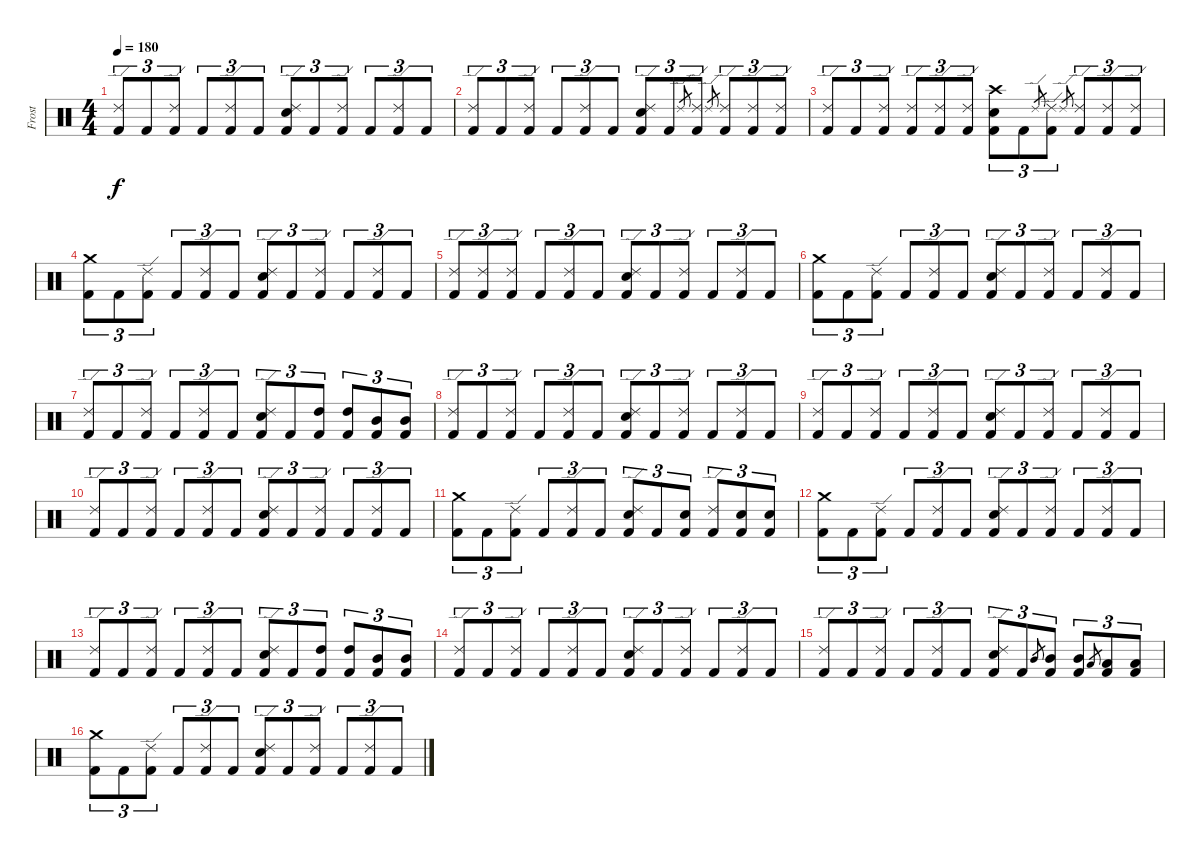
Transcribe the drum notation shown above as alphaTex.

\track ("Frost" "Frost") {instrument percussion}
\staff {score}
\articulation defaults
\ts (4 4)
\tempo 180
\clef neutral
\ks c
("Ride (edge) 2" "Kick (hit) 2").8{tu (3 2) dy f} "Kick (hit) 2".8{tu (3 2)} ("Ride (edge) 2" "Kick (hit) 2").8{tu (3 2)} "Kick (hit) 2".8{tu (3 2)} ("Ride (edge) 2" "Kick (hit) 2").8{tu (3 2)} "Kick (hit) 2".8{tu (3 2)} ("Ride (edge) 2" "Electric Snare (hit)" "Kick (hit) 2").8{tu (3 2)} "Kick (hit) 2".8{tu (3 2)} ("Ride (edge) 2" "Kick (hit) 2").8{tu (3 2)} "Kick (hit) 2".8{tu (3 2)} ("Ride (edge) 2" "Kick (hit) 2").8{tu (3 2)} "Kick (hit) 2".8{tu (3 2)} |
("Ride (edge) 2" "Kick (hit) 2").8{tu (3 2)} "Kick (hit) 2".8{tu (3 2)} ("Ride (edge) 2" "Kick (hit) 2").8{tu (3 2)} "Kick (hit) 2".8{tu (3 2)} ("Ride (edge) 2" "Kick (hit) 2").8{tu (3 2)} "Kick (hit) 2".8{tu (3 2)} ("Ride (edge) 2" "Electric Snare (hit)" "Kick (hit) 2").8{tu (3 2)} "Kick (hit) 2".8{tu (3 2)} "Ride (edge) 2".8{gr} ("Ride (edge) 2" "Kick (hit) 2").8{tu (3 2)} "Ride (edge) 2".8{gr} ("Ride (edge) 2" "Kick (hit) 2").8{tu (3 2)} ("Ride (edge) 2" "Kick (hit) 2").8{tu (3 2)} ("Ride (edge) 2" "Kick (hit) 2").8{tu (3 2)} |
("Ride (edge) 2" "Kick (hit) 2").8{tu (3 2)} "Kick (hit) 2".8{tu (3 2)} ("Ride (edge) 2" "Kick (hit) 2").8{tu (3 2)} ("Ride (edge) 2" "Kick (hit) 2").8{tu (3 2)} ("Ride (edge) 2" "Kick (hit) 2").8{tu (3 2)} ("Ride (edge) 2" "Kick (hit) 2").8{tu (3 2)} ("Crash high (hit)" "Electric Snare (hit)" "Kick (hit) 2").8{tu (3 2)} "Kick (hit) 2".8{tu (3 2)} "Ride (edge) 2".8{gr} ("Ride (edge) 2" "Kick (hit) 2").8{tu (3 2)} "Ride (edge) 2".8{gr} ("Ride (edge) 2" "Kick (hit) 2").8{tu (3 2)} ("Ride (edge) 2" "Kick (hit) 2").8{tu (3 2)} ("Ride (edge) 2" "Kick (hit) 2").8{tu (3 2)} |
("Crash medium (hit)" "Kick (hit) 2").8{tu (3 2)} "Kick (hit) 2".8{tu (3 2)} ("Ride (edge) 2" "Kick (hit) 2").8{tu (3 2)} "Kick (hit) 2".8{tu (3 2)} ("Ride (edge) 2" "Kick (hit) 2").8{tu (3 2)} "Kick (hit) 2".8{tu (3 2)} ("Ride (edge) 2" "Electric Snare (hit)" "Kick (hit) 2").8{tu (3 2)} "Kick (hit) 2".8{tu (3 2)} ("Ride (edge) 2" "Kick (hit) 2").8{tu (3 2)} "Kick (hit) 2".8{tu (3 2)} ("Ride (edge) 2" "Kick (hit) 2").8{tu (3 2)} "Kick (hit) 2".8{tu (3 2)} |
("Ride (edge) 2" "Kick (hit) 2").8{tu (3 2)} ("Ride (edge) 2" "Kick (hit) 2").8{tu (3 2)} ("Ride (edge) 2" "Kick (hit) 2").8{tu (3 2)} "Kick (hit) 2".8{tu (3 2)} ("Ride (edge) 2" "Kick (hit) 2").8{tu (3 2)} "Kick (hit) 2".8{tu (3 2)} ("Ride (edge) 2" "Electric Snare (hit)" "Kick (hit) 2").8{tu (3 2)} "Kick (hit) 2".8{tu (3 2)} ("Ride (edge) 2" "Kick (hit) 2").8{tu (3 2)} "Kick (hit) 2".8{tu (3 2)} ("Ride (edge) 2" "Kick (hit) 2").8{tu (3 2)} "Kick (hit) 2".8{tu (3 2)} |
("Crash medium (hit)" "Kick (hit) 2").8{tu (3 2)} "Kick (hit) 2".8{tu (3 2)} ("Ride (edge) 2" "Kick (hit) 2").8{tu (3 2)} "Kick (hit) 2".8{tu (3 2)} ("Ride (edge) 2" "Kick (hit) 2").8{tu (3 2)} "Kick (hit) 2".8{tu (3 2)} ("Ride (edge) 2" "Electric Snare (hit)" "Kick (hit) 2").8{tu (3 2)} "Kick (hit) 2".8{tu (3 2)} ("Ride (edge) 2" "Kick (hit) 2").8{tu (3 2)} "Kick (hit) 2".8{tu (3 2)} ("Ride (edge) 2" "Kick (hit) 2").8{tu (3 2)} "Kick (hit) 2".8{tu (3 2)} |
("Ride (edge) 2" "Kick (hit) 2").8{tu (3 2)} "Kick (hit) 2".8{tu (3 2)} ("Ride (edge) 2" "Kick (hit) 2").8{tu (3 2)} "Kick (hit) 2".8{tu (3 2)} ("Ride (edge) 2" "Kick (hit) 2").8{tu (3 2)} "Kick (hit) 2".8{tu (3 2)} ("Ride (edge) 2" "Electric Snare (hit)" "Kick (hit) 2").8{tu (3 2)} "Kick (hit) 2".8{tu (3 2)} ("High Tom (hit)" "Kick (hit) 2").8{tu (3 2)} ("High Tom (hit)" "Kick (hit) 2").8{tu (3 2)} ("Mid Tom (hit)" "Kick (hit) 2").8{tu (3 2)} ("Mid Tom (hit)" "Kick (hit) 2").8{tu (3 2)} |
("Ride (edge) 2" "Kick (hit) 2").8{tu (3 2)} "Kick (hit) 2".8{tu (3 2)} ("Ride (edge) 2" "Kick (hit) 2").8{tu (3 2)} "Kick (hit) 2".8{tu (3 2)} ("Ride (edge) 2" "Kick (hit) 2").8{tu (3 2)} "Kick (hit) 2".8{tu (3 2)} ("Ride (edge) 2" "Electric Snare (hit)" "Kick (hit) 2").8{tu (3 2)} "Kick (hit) 2".8{tu (3 2)} ("Ride (edge) 2" "Kick (hit) 2").8{tu (3 2)} "Kick (hit) 2".8{tu (3 2)} ("Ride (edge) 2" "Kick (hit) 2").8{tu (3 2)} "Kick (hit) 2".8{tu (3 2)} |
("Ride (edge) 2" "Kick (hit) 2").8{tu (3 2)} "Kick (hit) 2".8{tu (3 2)} ("Ride (edge) 2" "Kick (hit) 2").8{tu (3 2)} "Kick (hit) 2".8{tu (3 2)} ("Ride (edge) 2" "Kick (hit) 2").8{tu (3 2)} "Kick (hit) 2".8{tu (3 2)} ("Ride (edge) 2" "Electric Snare (hit)" "Kick (hit) 2").8{tu (3 2)} "Kick (hit) 2".8{tu (3 2)} ("Ride (edge) 2" "Kick (hit) 2").8{tu (3 2)} "Kick (hit) 2".8{tu (3 2)} ("Ride (edge) 2" "Kick (hit) 2").8{tu (3 2)} "Kick (hit) 2".8{tu (3 2)} |
("Ride (edge) 2" "Kick (hit) 2").8{tu (3 2)} "Kick (hit) 2".8{tu (3 2)} ("Ride (edge) 2" "Kick (hit) 2").8{tu (3 2)} "Kick (hit) 2".8{tu (3 2)} ("Ride (edge) 2" "Kick (hit) 2").8{tu (3 2)} "Kick (hit) 2".8{tu (3 2)} ("Ride (edge) 2" "Electric Snare (hit)" "Kick (hit) 2").8{tu (3 2)} "Kick (hit) 2".8{tu (3 2)} ("Ride (edge) 2" "Kick (hit) 2").8{tu (3 2)} "Kick (hit) 2".8{tu (3 2)} ("Ride (edge) 2" "Kick (hit) 2").8{tu (3 2)} "Kick (hit) 2".8{tu (3 2)} |
("Crash medium (hit)" "Kick (hit) 2").8{tu (3 2)} "Kick (hit) 2".8{tu (3 2)} ("Ride (edge) 2" "Kick (hit) 2").8{tu (3 2)} "Kick (hit) 2".8{tu (3 2)} ("Ride (edge) 2" "Kick (hit) 2").8{tu (3 2)} "Kick (hit) 2".8{tu (3 2)} ("Ride (edge) 2" "Electric Snare (hit)" "Kick (hit) 2").8{tu (3 2)} "Kick (hit) 2".8{tu (3 2)} ("Electric Snare (hit)" "Kick (hit) 2").8{tu (3 2)} ("Ride (edge) 2" "Kick (hit) 2").8{tu (3 2)} ("Electric Snare (hit)" "Kick (hit) 2").8{tu (3 2)} ("Electric Snare (hit)" "Kick (hit) 2").8{tu (3 2)} |
("Crash medium (hit)" "Kick (hit) 2").8{tu (3 2)} "Kick (hit) 2".8{tu (3 2)} ("Ride (edge) 2" "Kick (hit) 2").8{tu (3 2)} "Kick (hit) 2".8{tu (3 2)} ("Ride (edge) 2" "Kick (hit) 2").8{tu (3 2)} "Kick (hit) 2".8{tu (3 2)} ("Ride (edge) 2" "Electric Snare (hit)" "Kick (hit) 2").8{tu (3 2)} "Kick (hit) 2".8{tu (3 2)} ("Ride (edge) 2" "Kick (hit) 2").8{tu (3 2)} "Kick (hit) 2".8{tu (3 2)} ("Ride (edge) 2" "Kick (hit) 2").8{tu (3 2)} "Kick (hit) 2".8{tu (3 2)} |
("Ride (edge) 2" "Kick (hit) 2").8{tu (3 2)} "Kick (hit) 2".8{tu (3 2)} ("Ride (edge) 2" "Kick (hit) 2").8{tu (3 2)} "Kick (hit) 2".8{tu (3 2)} ("Ride (edge) 2" "Kick (hit) 2").8{tu (3 2)} "Kick (hit) 2".8{tu (3 2)} ("Ride (edge) 2" "Electric Snare (hit)" "Kick (hit) 2").8{tu (3 2)} "Kick (hit) 2".8{tu (3 2)} ("High Tom (hit)" "Kick (hit) 2").8{tu (3 2)} ("High Tom (hit)" "Kick (hit) 2").8{tu (3 2)} ("Mid Tom (hit)" "Kick (hit) 2").8{tu (3 2)} ("Mid Tom (hit)" "Kick (hit) 2").8{tu (3 2)} |
("Ride (edge) 2" "Kick (hit) 2").8{tu (3 2)} "Kick (hit) 2".8{tu (3 2)} ("Ride (edge) 2" "Kick (hit) 2").8{tu (3 2)} "Kick (hit) 2".8{tu (3 2)} ("Ride (edge) 2" "Kick (hit) 2").8{tu (3 2)} "Kick (hit) 2".8{tu (3 2)} ("Ride (edge) 2" "Electric Snare (hit)" "Kick (hit) 2").8{tu (3 2)} "Kick (hit) 2".8{tu (3 2)} ("Ride (edge) 2" "Kick (hit) 2").8{tu (3 2)} "Kick (hit) 2".8{tu (3 2)} ("Ride (edge) 2" "Kick (hit) 2").8{tu (3 2)} "Kick (hit) 2".8{tu (3 2)} |
("Ride (edge) 2" "Kick (hit) 2").8{tu (3 2)} "Kick (hit) 2".8{tu (3 2)} ("Ride (edge) 2" "Kick (hit) 2").8{tu (3 2)} "Kick (hit) 2".8{tu (3 2)} ("Ride (edge) 2" "Kick (hit) 2").8{tu (3 2)} "Kick (hit) 2".8{tu (3 2)} ("Ride (edge) 2" "Electric Snare (hit)" "Kick (hit) 2").8{tu (3 2)} "Kick (hit) 2".8{tu (3 2)} "Mid Tom (hit)".8{gr} ("Mid Tom (hit)" "Kick (hit) 2").8{tu (3 2)} ("Mid Tom (hit)" "Kick (hit) 2").8{tu (3 2)} "Low Tom (hit)".8{gr} ("Low Tom (hit)" "Kick (hit) 2").8{tu (3 2)} ("Low Tom (hit)" "Kick (hit) 2").8{tu (3 2)} |
("Crash medium (hit)" "Kick (hit) 2").8{tu (3 2)} "Kick (hit) 2".8{tu (3 2)} ("Ride (edge) 2" "Kick (hit) 2").8{tu (3 2)} "Kick (hit) 2".8{tu (3 2)} ("Ride (edge) 2" "Kick (hit) 2").8{tu (3 2)} "Kick (hit) 2".8{tu (3 2)} ("Ride (edge) 2" "Electric Snare (hit)" "Kick (hit) 2").8{tu (3 2)} "Kick (hit) 2".8{tu (3 2)} ("Ride (edge) 2" "Kick (hit) 2").8{tu (3 2)} "Kick (hit) 2".8{tu (3 2)} ("Ride (edge) 2" "Kick (hit) 2").8{tu (3 2)} "Kick (hit) 2".8{tu (3 2)}
